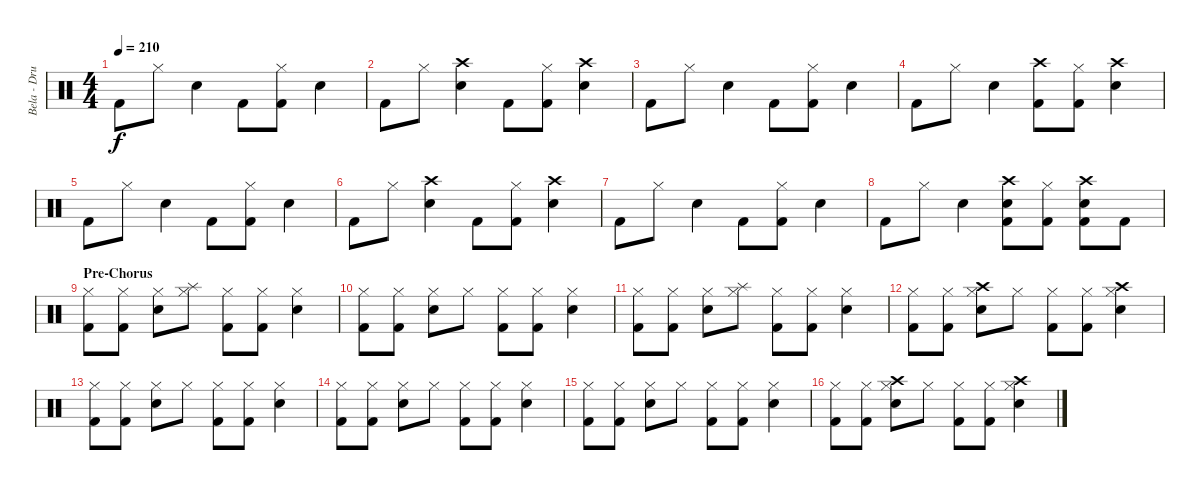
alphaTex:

\track ("Bela - Drums" "Bela - Dru") {instrument percussion}
\staff {score}
\articulation defaults
\ts (4 4)
\tempo 210
\clef neutral
\ks c "Kick (hit) 2".8{dy f} "Hi-Hat (closed)".8 "Electric Snare (hit)".4 "Kick (hit) 2".8
("Hi-Hat (closed)" "Kick (hit) 2").8 "Electric Snare (hit)".4 |
"Kick (hit) 2".8 "Hi-Hat (closed)".8 ("Crash high (hit)" "Electric Snare (hit)").4 "Kick (hit) 2".8 ("Hi-Hat (closed)" "Kick (hit) 2").8 ("Crash high (hit)" "Electric Snare (hit)").4 |
"Kick (hit) 2".8 "Hi-Hat (closed)".8 "Electric Snare (hit)".4 "Kick (hit) 2".8 ("Hi-Hat (closed)" "Kick (hit) 2").8 "Electric Snare (hit)".4 |
"Kick (hit) 2".8 "Hi-Hat (closed)".8 "Electric Snare (hit)".4 ("Crash high (hit)" "Kick (hit) 2").8 ("Hi-Hat (closed)" "Kick (hit) 2").8 ("Crash high (hit)" "Electric Snare (hit)").4 |
"Kick (hit) 2".8 "Hi-Hat (closed)".8 "Electric Snare (hit)".4 "Kick (hit) 2".8 ("Hi-Hat (closed)" "Kick (hit) 2").8 "Electric Snare (hit)".4 |
"Kick (hit) 2".8 "Hi-Hat (closed)".8 ("Crash high (hit)" "Electric Snare (hit)").4 "Kick (hit) 2".8 ("Hi-Hat (closed)" "Kick (hit) 2").8 ("Crash high (hit)" "Electric Snare (hit)").4 |
"Kick (hit) 2".8 "Hi-Hat (closed)".8 "Electric Snare (hit)".4 "Kick (hit) 2".8 ("Hi-Hat (closed)" "Kick (hit) 2").8 "Electric Snare (hit)".4 |
"Kick (hit) 2".8 "Hi-Hat (closed)".8 "Electric Snare (hit)".4 ("Crash high (hit)" "Electric Snare (hit)" "Kick (hit) 2").8 ("Hi-Hat (closed)" "Kick (hit) 2").8 ("Crash high (hit)" "Electric Snare (hit)" "Kick (hit) 2").8 "Kick (hit) 2".8 |
\section ("" "Pre-Chorus")
("Hi-Hat (closed)" "Kick (hit) 2").8 ("Hi-Hat (closed)" "Kick (hit) 2").8 ("Hi-Hat (closed)" "Electric Snare (hit)").8 ("Hi-Hat (closed)" "Splash (hit)").8 ("Hi-Hat (closed)" "Kick (hit) 2").8 ("Hi-Hat (closed)" "Kick (hit) 2").8 ("Hi-Hat (closed)" "Electric Snare (hit)").4 |
("Hi-Hat (closed)" "Kick (hit) 2").8 ("Hi-Hat (closed)" "Kick (hit) 2").8 ("Hi-Hat (closed)" "Electric Snare (hit)").8 "Hi-Hat (closed)".8 ("Hi-Hat (closed)" "Kick (hit) 2").8 ("Hi-Hat (closed)" "Kick (hit) 2").8 ("Hi-Hat (closed)" "Electric Snare (hit)").4 |
("Hi-Hat (closed)" "Kick (hit) 2").8 ("Hi-Hat (closed)" "Kick (hit) 2").8 ("Hi-Hat (closed)" "Electric Snare (hit)").8 ("Hi-Hat (closed)" "Splash (hit)").8 ("Hi-Hat (closed)" "Kick (hit) 2").8 ("Hi-Hat (closed)" "Kick (hit) 2").8 ("Hi-Hat (closed)" "Electric Snare (hit)").4 |
("Hi-Hat (closed)" "Kick (hit) 2").8 ("Hi-Hat (closed)" "Kick (hit) 2").8 ("Hi-Hat (closed)" "Crash high (hit)" "Electric Snare (hit)").8 "Hi-Hat (closed)".8 ("Hi-Hat (closed)" "Kick (hit) 2").8 ("Hi-Hat (closed)" "Kick (hit) 2").8 ("Hi-Hat (closed)" "Crash high (hit)" "Electric Snare (hit)").4 |
("Hi-Hat (closed)" "Kick (hit) 2").8 ("Hi-Hat (closed)" "Kick (hit) 2").8 ("Hi-Hat (closed)" "Electric Snare (hit)").8 "Hi-Hat (closed)".8 ("Hi-Hat (closed)" "Kick (hit) 2").8 ("Hi-Hat (closed)" "Kick (hit) 2").8 ("Hi-Hat (closed)" "Electric Snare (hit)").4 |
("Hi-Hat (closed)" "Kick (hit) 2").8 ("Hi-Hat (closed)" "Kick (hit) 2").8 ("Hi-Hat (closed)" "Electric Snare (hit)").8 "Hi-Hat (closed)".8 ("Hi-Hat (closed)" "Kick (hit) 2").8 ("Hi-Hat (closed)" "Kick (hit) 2").8 ("Hi-Hat (closed)" "Electric Snare (hit)").4 |
("Hi-Hat (closed)" "Kick (hit) 2").8 ("Hi-Hat (closed)" "Kick (hit) 2").8 ("Hi-Hat (closed)" "Electric Snare (hit)").8 "Hi-Hat (closed)".8 ("Hi-Hat (closed)" "Kick (hit) 2").8 ("Hi-Hat (closed)" "Kick (hit) 2").8 ("Hi-Hat (closed)" "Electric Snare (hit)").4 |
("Hi-Hat (closed)" "Kick (hit) 2").8 ("Hi-Hat (closed)" "Kick (hit) 2").8 ("Hi-Hat (closed)" "Crash high (hit)" "Electric Snare (hit)").8 "Hi-Hat (closed)".8 ("Hi-Hat (closed)" "Kick (hit) 2").8 ("Hi-Hat (closed)" "Kick (hit) 2").8 ("Hi-Hat (closed)" "Crash high (hit)" "Electric Snare (hit)").4
